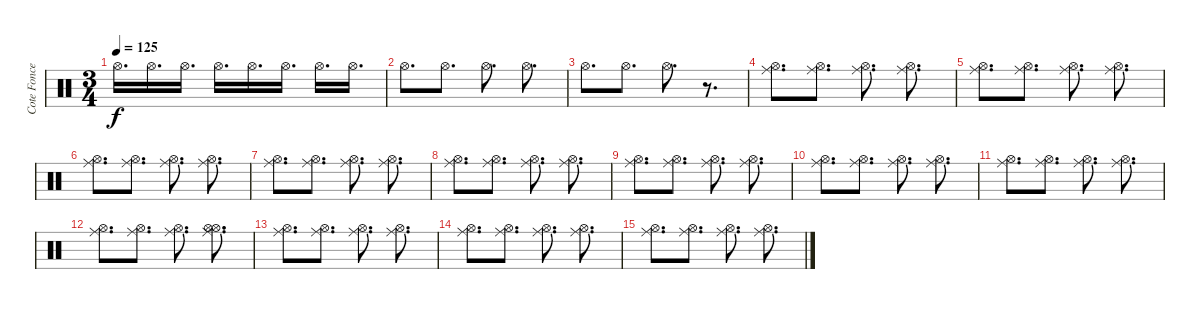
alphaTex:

\track ("Cote Foncea" "Cote Fonce") {instrument percussion}
\staff {score}
\articulation defaults
\ts (3 4)
\tempo 125
\clef neutral
\ks c "Hi-Hat (open)".16{d dy f} "Hi-Hat (open)".16{d} "Hi-Hat (open)".16{d} "Hi-Hat (open)".16{d} "Hi-Hat (open)".16{d} "Hi-Hat (open)".16{d} "Hi-Hat (open)".16{d} "Hi-Hat (open)".16{d}
|
"Hi-Hat (open)".8{d} "Hi-Hat (open)".8{d} "Hi-Hat (open)".8{d} "Hi-Hat (open)".8{d} |
"Hi-Hat (open)".8{d} "Hi-Hat (open)".8{d} "Hi-Hat (open)".8{d} r.8{d} |
("Hi-Hat (open)" "Ride (middle)").8{d volume 16} ("Hi-Hat (open)" "Ride (middle)").8{d} ("Hi-Hat (open)" "Ride (middle)").8{d} ("Hi-Hat (open)" "Ride (middle)").8{d} |
("Hi-Hat (open)" "Ride (middle)").8{d} ("Hi-Hat (open)" "Ride (middle)").8{d} ("Hi-Hat (open)" "Ride (middle)").8{d} ("Hi-Hat (open)" "Ride (middle)").8{d} |
("Hi-Hat (open)" "Ride (middle)").8{d} ("Hi-Hat (open)" "Ride (middle)").8{d} ("Hi-Hat (open)" "Ride (middle)").8{d} ("Hi-Hat (open)" "Ride (middle)").8{d} |
("Hi-Hat (open)" "Ride (middle)").8{d} ("Hi-Hat (open)" "Ride (middle)").8{d} ("Hi-Hat (open)" "Ride (middle)").8{d} ("Hi-Hat (open)" "Ride (middle)").8{d} |
("Hi-Hat (open)" "Ride (middle)").8{d} ("Hi-Hat (open)" "Ride (middle)").8{d} ("Hi-Hat (open)" "Ride (middle)").8{d} ("Hi-Hat (open)" "Ride (middle)").8{d} |
("Hi-Hat (open)" "Ride (middle)").8{d} ("Hi-Hat (open)" "Ride (middle)").8{d} ("Hi-Hat (open)" "Ride (middle)").8{d} ("Hi-Hat (open)" "Ride (middle)").8{d} |
("Hi-Hat (open)" "Ride (middle)").8{d} ("Hi-Hat (open)" "Ride (middle)").8{d} ("Hi-Hat (open)" "Ride (middle)").8{d} ("Hi-Hat (open)" "Ride (middle)").8{d} |
("Hi-Hat (open)" "Ride (middle)").8{d} ("Hi-Hat (open)" "Ride (middle)").8{d} ("Hi-Hat (open)" "Ride (middle)").8{d} ("Hi-Hat (open)" "Ride (middle)").8{d} |
("Ride (middle)" "Hi-Hat (open)").8{d} ("Ride (middle)" "Hi-Hat (open)").8{d} ("Ride (middle)" "Hi-Hat (open)").8{d} ("Hi-Hat (open)" "Ride (middle)" "Hi-Hat (open)").8{d} |
("Ride (middle)" "Hi-Hat (open)").8{d} ("Ride (middle)" "Hi-Hat (open)").8{d} ("Ride (middle)" "Hi-Hat (open)").8{d} ("Ride (middle)" "Hi-Hat (open)").8{d} |
("Ride (middle)" "Hi-Hat (open)").8{d} ("Ride (middle)" "Hi-Hat (open)").8{d} ("Ride (middle)" "Hi-Hat (open)").8{d} ("Ride (middle)" "Hi-Hat (open)").8{d} |
("Ride (middle)" "Hi-Hat (open)").8{d} ("Ride (middle)" "Hi-Hat (open)").8{d} ("Ride (middle)" "Hi-Hat (open)").8{d} ("Ride (middle)" "Hi-Hat (open)").8{d}
